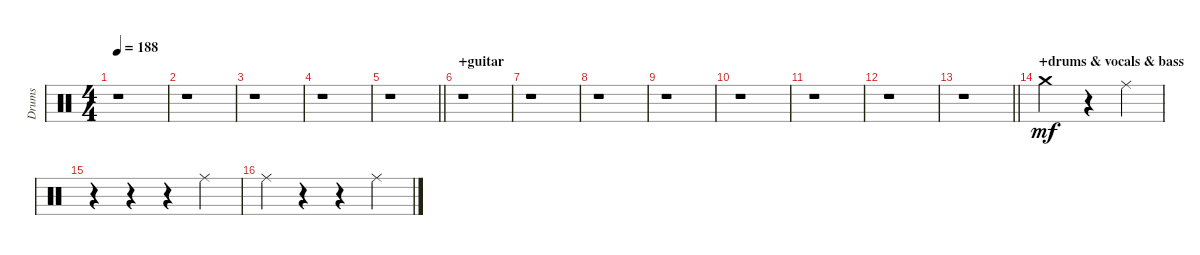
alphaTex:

\track ("Drums" "Drums") {instrument percussion}
\staff {score}
\articulation defaults
\ts (4 4)
\tempo 188
\clef neutral
\ks c
r.1{dy f} |
r.1 |
r.1 |
r.1 |
\barLineRight lightlight
r.1 |
\section ("" "+guitar")
r.1 |
r.1 |
r.1 |
r.1 |
r.1 |
r.1 |
r.1 |
\barLineRight lightlight
r.1 |
\section ("" "+drums & vocals & bass")
"Crash medium (hit)".2{dy mf} r.4 "Ride (middle)".4 |
r.4 r.4 r.4 "Ride (middle)".4 |
"Ride (middle)".4 r.4 r.4 "Ride (middle)".4
